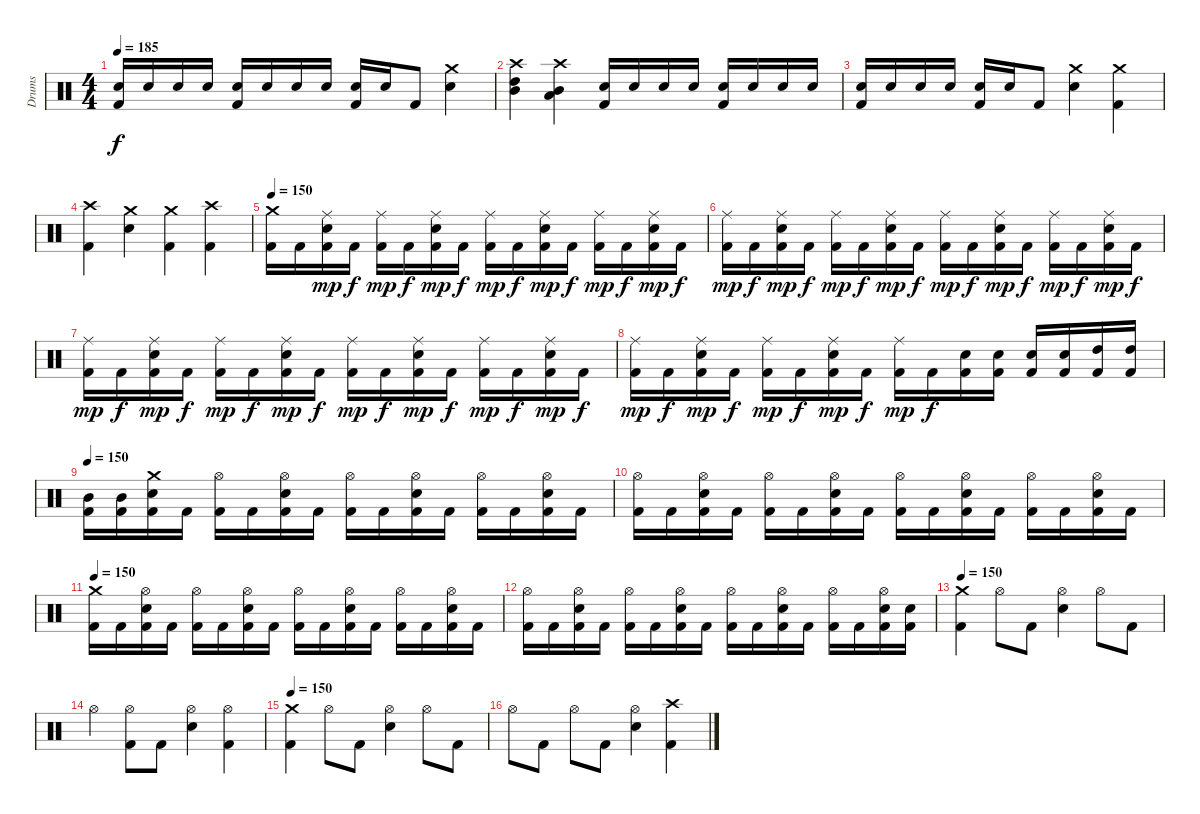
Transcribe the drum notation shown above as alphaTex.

\track ("Drums" "Drums") {instrument percussion}
\staff {score}
\articulation defaults
\ts (4 4)
\tempo 185
\clef neutral
\ks c
("Electric Snare (hit)" "Kick (hit) 2").16{dy f} "Electric Snare (hit)".16 "Electric Snare (hit)".16 "Electric Snare (hit)".16 ("Electric Snare (hit)" "Kick (hit) 2").16 "Electric Snare (hit)".16 "Electric Snare (hit)".16 "Electric Snare (hit)".16 ("Electric Snare (hit)" "Kick (hit) 2").16 "Electric Snare (hit)".16 "Kick (hit) 2".8 ("Crash medium (hit)" "Electric Snare (hit)").4 |
("Crash high (hit)" "High Tom (hit)" "Mid Tom (hit)").4 ("Crash high (hit)" "Mid Tom (hit)" "Low Tom (hit)").4 ("Electric Snare (hit)" "Kick (hit) 2").16 "Electric Snare (hit)".16 "Electric Snare (hit)".16 "Electric Snare (hit)".16 ("Electric Snare (hit)" "Kick (hit) 2").16 "Electric Snare (hit)".16 "Electric Snare (hit)".16 "Electric Snare (hit)".16 |
("Electric Snare (hit)" "Kick (hit) 2").16 "Electric Snare (hit)".16 "Electric Snare (hit)".16 "Electric Snare (hit)".16 ("Electric Snare (hit)" "Kick (hit) 2").16 "Electric Snare (hit)".16 "Kick (hit) 2".8 ("Crash medium (hit)" "Electric Snare (hit)").4 ("Crash medium (hit)" "Kick (hit) 2").4 |
("Crash high (hit)" "Kick (hit) 2").4 ("Crash medium (hit)" "Electric Snare (hit)").4 ("Crash medium (hit)" "Kick (hit) 2").4 ("Crash high (hit)" "Kick (hit) 2").4 |
\tempo 150
("Crash medium (hit)" "Kick (hit) 2").16 "Kick (hit) 2".16 ("Ride (middle)" "Electric Snare (hit)" "Kick (hit) 2").16{dy mp} "Kick (hit) 2".16{dy f} ("Ride (middle)" "Kick (hit) 2").16{dy mp} "Kick (hit) 2".16{dy f} ("Ride (middle)" "Electric Snare (hit)" "Kick (hit) 2").16{dy mp} "Kick (hit) 2".16{dy f} ("Ride (middle)" "Kick (hit) 2").16{dy mp} "Kick (hit) 2".16{dy f} ("Ride (middle)" "Electric Snare (hit)" "Kick (hit) 2").16{dy mp} "Kick (hit) 2".16{dy f} ("Ride (middle)" "Kick (hit) 2").16{dy mp} "Kick (hit) 2".16{dy f} ("Ride (middle)" "Electric Snare (hit)" "Kick (hit) 2").16{dy mp} "Kick (hit) 2".16{dy f} |
("Ride (middle)" "Kick (hit) 2").16{dy mp} "Kick (hit) 2".16{dy f} ("Ride (middle)" "Electric Snare (hit)" "Kick (hit) 2").16{dy mp} "Kick (hit) 2".16{dy f} ("Ride (middle)" "Kick (hit) 2").16{dy mp} "Kick (hit) 2".16{dy f} ("Ride (middle)" "Electric Snare (hit)" "Kick (hit) 2").16{dy mp} "Kick (hit) 2".16{dy f} ("Ride (middle)" "Kick (hit) 2").16{dy mp} "Kick (hit) 2".16{dy f} ("Ride (middle)" "Electric Snare (hit)" "Kick (hit) 2").16{dy mp} "Kick (hit) 2".16{dy f} ("Ride (middle)" "Kick (hit) 2").16{dy mp} "Kick (hit) 2".16{dy f} ("Ride (middle)" "Electric Snare (hit)" "Kick (hit) 2").16{dy mp} "Kick (hit) 2".16{dy f} |
("Ride (middle)" "Kick (hit) 2").16{dy mp} "Kick (hit) 2".16{dy f} ("Ride (middle)" "Electric Snare (hit)" "Kick (hit) 2").16{dy mp} "Kick (hit) 2".16{dy f} ("Ride (middle)" "Kick (hit) 2").16{dy mp} "Kick (hit) 2".16{dy f} ("Ride (middle)" "Electric Snare (hit)" "Kick (hit) 2").16{dy mp} "Kick (hit) 2".16{dy f} ("Ride (middle)" "Kick (hit) 2").16{dy mp} "Kick (hit) 2".16{dy f} ("Ride (middle)" "Electric Snare (hit)" "Kick (hit) 2").16{dy mp} "Kick (hit) 2".16{dy f} ("Ride (middle)" "Kick (hit) 2").16{dy mp} "Kick (hit) 2".16{dy f} ("Ride (middle)" "Electric Snare (hit)" "Kick (hit) 2").16{dy mp} "Kick (hit) 2".16{dy f} |
("Ride (middle)" "Kick (hit) 2").16{dy mp} "Kick (hit) 2".16{dy f} ("Ride (middle)" "Electric Snare (hit)" "Kick (hit) 2").16{dy mp} "Kick (hit) 2".16{dy f} ("Ride (middle)" "Kick (hit) 2").16{dy mp} "Kick (hit) 2".16{dy f} ("Ride (middle)" "Electric Snare (hit)" "Kick (hit) 2").16{dy mp} "Kick (hit) 2".16{dy f} ("Ride (middle)" "Kick (hit) 2").16{dy mp} "Kick (hit) 2".16{dy f} ("Electric Snare (hit)" "Kick (hit) 2").16 ("Electric Snare (hit)" "Kick (hit) 2").16 ("Electric Snare (hit)" "Kick (hit) 2").16 ("Electric Snare (hit)" "Kick (hit) 2").16 ("High Tom (hit)" "Kick (hit) 2").16 ("High Tom (hit)" "Kick (hit) 2").16 |
\tempo 150
("Mid Tom (hit)" "Kick (hit) 2").16 ("Mid Tom (hit)" "Kick (hit) 2").16 ("Crash medium (hit)" "Electric Snare (hit)" "Kick (hit) 2").16 "Kick (hit) 2".16 ("Hi-Hat (open)" "Kick (hit) 2").16 "Kick (hit) 2".16 ("Hi-Hat (open)" "Electric Snare (hit)" "Kick (hit) 2").16 "Kick (hit) 2".16 ("Hi-Hat (open)" "Kick (hit) 2").16 "Kick (hit) 2".16 ("Hi-Hat (open)" "Electric Snare (hit)" "Kick (hit) 2").16 "Kick (hit) 2".16 ("Hi-Hat (open)" "Kick (hit) 2").16 "Kick (hit) 2".16 ("Hi-Hat (open)" "Electric Snare (hit)" "Kick (hit) 2").16 "Kick (hit) 2".16 |
("Hi-Hat (open)" "Kick (hit) 2").16 "Kick (hit) 2".16 ("Hi-Hat (open)" "Electric Snare (hit)" "Kick (hit) 2").16 "Kick (hit) 2".16 ("Hi-Hat (open)" "Kick (hit) 2").16 "Kick (hit) 2".16 ("Hi-Hat (open)" "Electric Snare (hit)" "Kick (hit) 2").16 "Kick (hit) 2".16 ("Hi-Hat (open)" "Kick (hit) 2").16 "Kick (hit) 2".16 ("Hi-Hat (open)" "Electric Snare (hit)" "Kick (hit) 2").16 "Kick (hit) 2".16 ("Hi-Hat (open)" "Kick (hit) 2").16 "Kick (hit) 2".16 ("Hi-Hat (open)" "Electric Snare (hit)" "Kick (hit) 2").16 "Kick (hit) 2".16 |
\tempo 150
("Crash medium (hit)" "Kick (hit) 2").16 "Kick (hit) 2".16 ("Hi-Hat (open)" "Electric Snare (hit)" "Kick (hit) 2").16 "Kick (hit) 2".16 ("Hi-Hat (open)" "Kick (hit) 2").16 "Kick (hit) 2".16 ("Hi-Hat (open)" "Electric Snare (hit)" "Kick (hit) 2").16 "Kick (hit) 2".16 ("Hi-Hat (open)" "Kick (hit) 2").16 "Kick (hit) 2".16 ("Hi-Hat (open)" "Electric Snare (hit)" "Kick (hit) 2").16 "Kick (hit) 2".16 ("Hi-Hat (open)" "Kick (hit) 2").16 "Kick (hit) 2".16 ("Hi-Hat (open)" "Electric Snare (hit)" "Kick (hit) 2").16 "Kick (hit) 2".16 |
("Hi-Hat (open)" "Kick (hit) 2").16 "Kick (hit) 2".16 ("Hi-Hat (open)" "Electric Snare (hit)" "Kick (hit) 2").16 "Kick (hit) 2".16 ("Hi-Hat (open)" "Kick (hit) 2").16 "Kick (hit) 2".16 ("Hi-Hat (open)" "Electric Snare (hit)" "Kick (hit) 2").16 "Kick (hit) 2".16 ("Hi-Hat (open)" "Kick (hit) 2").16 "Kick (hit) 2".16 ("Hi-Hat (open)" "Electric Snare (hit)" "Kick (hit) 2").16 "Kick (hit) 2".16 ("Hi-Hat (open)" "Kick (hit) 2").16 "Kick (hit) 2".16 ("Hi-Hat (open)" "Electric Snare (hit)" "Kick (hit) 2").16 ("Electric Snare (hit)" "Kick (hit) 2").16 |
\tempo 150
("Crash medium (hit)" "Kick (hit) 2").4 "Hi-Hat (open)".8 "Kick (hit) 2".8 ("Hi-Hat (open)" "Electric Snare (hit)").4 "Hi-Hat (open)".8 "Kick (hit) 2".8 |
"Hi-Hat (open)".4 ("Hi-Hat (open)" "Kick (hit) 2").8 "Kick (hit) 2".8 ("Hi-Hat (open)" "Electric Snare (hit)").4 ("Hi-Hat (open)" "Kick (hit) 2").4 |
\tempo 150
("Crash medium (hit)" "Kick (hit) 2").4 "Hi-Hat (open)".8 "Kick (hit) 2".8 ("Hi-Hat (open)" "Electric Snare (hit)").4 "Hi-Hat (open)".8 "Kick (hit) 2".8 |
"Hi-Hat (open)".8 "Kick (hit) 2".8 "Hi-Hat (open)".8 "Kick (hit) 2".8 ("Hi-Hat (open)" "Electric Snare (hit)").4 ("Crash high (hit)" "Kick (hit) 2").4
